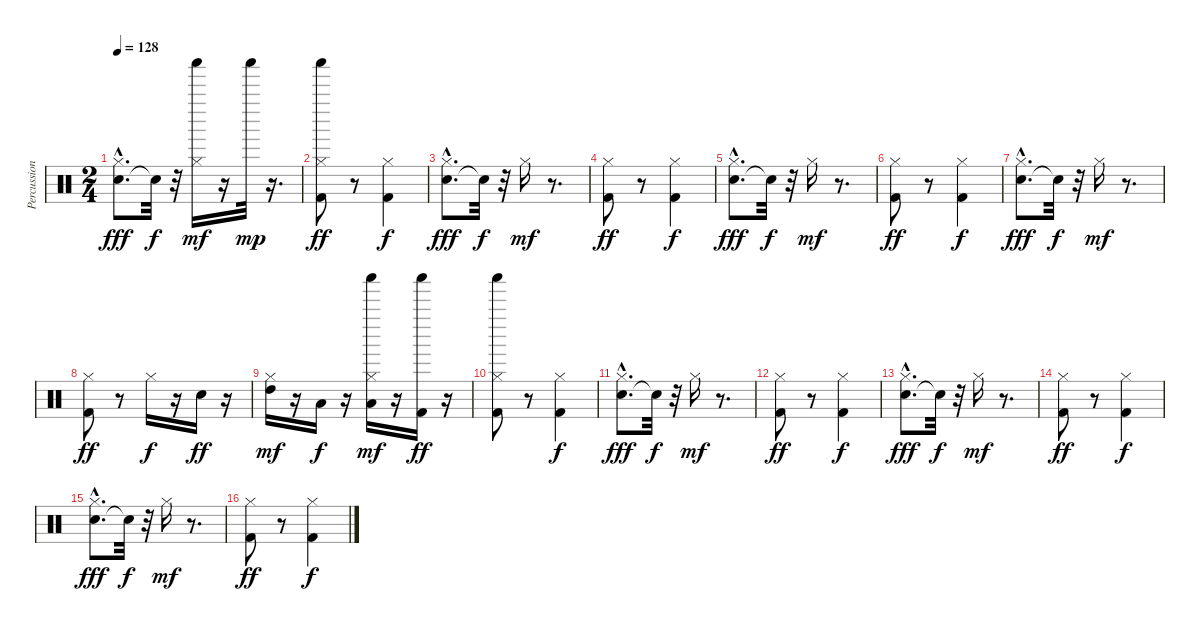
\track ("Percussion" "Percussion") {instrument percussion}
\staff {score}
\articulation defaults
\ts (2 4)
\tempo 128
\clef neutral
\ks c
("Electric Snare (hit)"{hac} "Hi-Hat (closed)").8{d dy fff} "Snare (hit)"{t}.32{dy f} r.32 ("Shaker (hit)" "Hi-Hat (closed)").16{dy mf} r.16 "Shaker (hit)".32{dy mp} r.16{d} |
("Shaker (hit)" "Hi-Hat (closed)" "Kick (hit) 2").8{dy ff} r.8 ("Kick (hit) 2" "Hi-Hat (closed)").4{dy f} |
("Electric Snare (hit)"{hac} "Hi-Hat (closed)").8{d dy fff} "Snare (hit)"{t}.32{dy f} r.32 "Hi-Hat (closed)".16{dy mf} r.8{d} |
("Hi-Hat (closed)" "Kick (hit) 2").8{dy ff} r.8 ("Kick (hit) 2" "Hi-Hat (closed)").4{dy f} |
("Electric Snare (hit)"{hac} "Hi-Hat (closed)").8{d dy fff} "Snare (hit)"{t}.32{dy f} r.32 "Hi-Hat (closed)".16{dy mf} r.8{d} |
("Hi-Hat (closed)" "Kick (hit) 2").8{dy ff} r.8 ("Kick (hit) 2" "Hi-Hat (closed)").4{dy f} |
("Electric Snare (hit)"{hac} "Hi-Hat (closed)").8{d dy fff} "Snare (hit)"{t}.32{dy f} r.32 "Hi-Hat (closed)".16{dy mf} r.8{d} |
("Hi-Hat (closed)" "Kick (hit) 2").8{dy ff} r.8 "Hi-Hat (closed)".16{dy f} r.16 "Electric Snare (hit)".16{dy ff} r.16 |
("Hi-Hat (closed)" "High Tom (hit)").16{dy mf} r.16 "Low Tom (hit)".16{dy f} r.16 ("Shaker (hit)" "Hi-Hat (closed)" "Low Floor Tom (hit)").16{dy mf} r.16 ("Shaker (hit)" "Kick (hit) 2").16{dy ff} r.16 |
("Shaker (hit)" "Hi-Hat (closed)" "Kick (hit) 2").8 r.8 ("Kick (hit) 2" "Hi-Hat (closed)").4{dy f} |
("Electric Snare (hit)"{hac} "Hi-Hat (closed)").8{d dy fff} "Snare (hit)"{t}.32{dy f} r.32 "Hi-Hat (closed)".16{dy mf} r.8{d} |
("Hi-Hat (closed)" "Kick (hit) 2").8{dy ff} r.8 ("Kick (hit) 2" "Hi-Hat (closed)").4{dy f} |
("Electric Snare (hit)"{hac} "Hi-Hat (closed)").8{d dy fff} "Snare (hit)"{t}.32{dy f} r.32 "Hi-Hat (closed)".16{dy mf} r.8{d} |
("Hi-Hat (closed)" "Kick (hit) 2").8{dy ff} r.8 ("Kick (hit) 2" "Hi-Hat (closed)").4{dy f} |
("Electric Snare (hit)"{hac} "Hi-Hat (closed)").8{d dy fff} "Snare (hit)"{t}.32{dy f} r.32 "Hi-Hat (closed)".16{dy mf} r.8{d} |
("Hi-Hat (closed)" "Kick (hit) 2").8{dy ff} r.8 ("Kick (hit) 2" "Hi-Hat (closed)").4{dy f}
